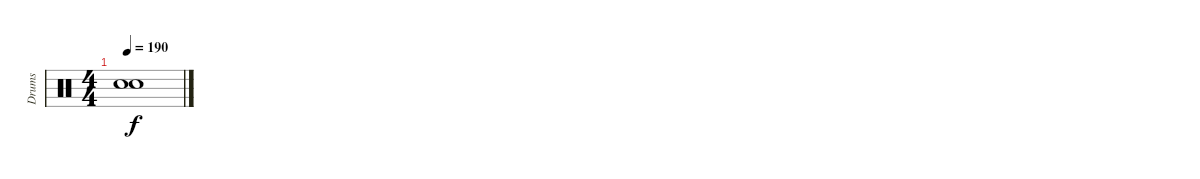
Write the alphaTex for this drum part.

\track ("Drums" "Drums") {instrument percussion}
\staff {score}
\articulation defaults
\ts (4 4)
\tempo 190
\clef neutral
\ks c
("Snare (hit)"{t} "Snare (hit)"{t}).1{dy f}
